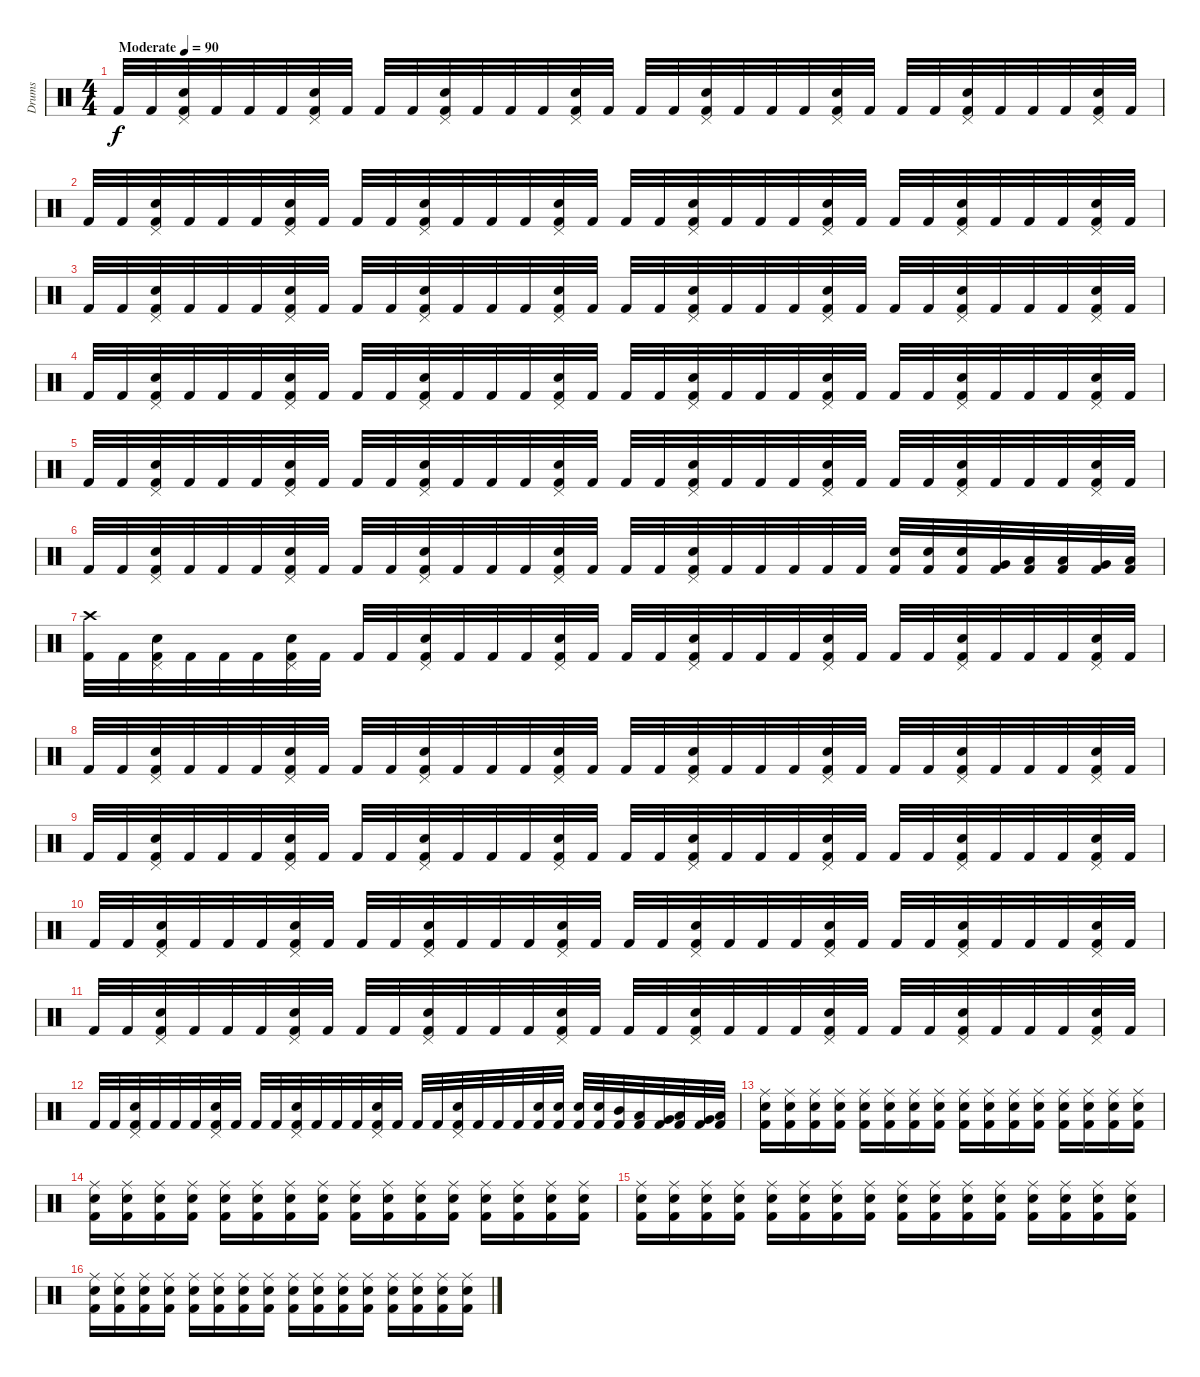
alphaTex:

\track ("Drums" "Drums") {instrument percussion}
\staff {score}
\articulation defaults
\ts (4 4)
\tempo (90 "Moderate")
\clef neutral
\ks c "Kick (hit) 2".32{dy f} "Kick (hit) 2".32
("Pedal Hi-Hat (hit)" "Snare (hit) 2" "Kick (hit) 2").32 "Kick (hit) 2".32 "Kick (hit) 2".32 "Kick (hit) 2".32 ("Pedal Hi-Hat (hit)" "Snare (hit) 2" "Kick (hit) 2").32 "Kick (hit) 2".32 "Kick (hit) 2".32 "Kick (hit) 2".32 ("Pedal Hi-Hat (hit)" "Snare (hit) 2" "Kick (hit) 2").32 "Kick (hit) 2".32 "Kick (hit) 2".32 "Kick (hit) 2".32 ("Pedal Hi-Hat (hit)" "Snare (hit) 2" "Kick (hit) 2").32 "Kick (hit) 2".32 "Kick (hit) 2".32 "Kick (hit) 2".32 ("Pedal Hi-Hat (hit)" "Snare (hit) 2" "Kick (hit) 2").32 "Kick (hit) 2".32 "Kick (hit) 2".32 "Kick (hit) 2".32 ("Pedal Hi-Hat (hit)" "Snare (hit) 2" "Kick (hit) 2").32 "Kick (hit) 2".32 "Kick (hit) 2".32 "Kick (hit) 2".32 ("Pedal Hi-Hat (hit)" "Snare (hit) 2" "Kick (hit) 2").32 "Kick (hit) 2".32 "Kick (hit) 2".32 "Kick (hit) 2".32 ("Pedal Hi-Hat (hit)" "Snare (hit) 2" "Kick (hit) 2").32 "Kick (hit) 2".32 |
"Kick (hit) 2".32 "Kick (hit) 2".32 ("Pedal Hi-Hat (hit)" "Snare (hit) 2" "Kick (hit) 2").32 "Kick (hit) 2".32 "Kick (hit) 2".32 "Kick (hit) 2".32 ("Pedal Hi-Hat (hit)" "Snare (hit) 2" "Kick (hit) 2").32 "Kick (hit) 2".32 "Kick (hit) 2".32 "Kick (hit) 2".32 ("Pedal Hi-Hat (hit)" "Snare (hit) 2" "Kick (hit) 2").32 "Kick (hit) 2".32 "Kick (hit) 2".32 "Kick (hit) 2".32 ("Pedal Hi-Hat (hit)" "Snare (hit) 2" "Kick (hit) 2").32 "Kick (hit) 2".32 "Kick (hit) 2".32 "Kick (hit) 2".32 ("Pedal Hi-Hat (hit)" "Snare (hit) 2" "Kick (hit) 2").32 "Kick (hit) 2".32 "Kick (hit) 2".32 "Kick (hit) 2".32 ("Pedal Hi-Hat (hit)" "Snare (hit) 2" "Kick (hit) 2").32 "Kick (hit) 2".32 "Kick (hit) 2".32 "Kick (hit) 2".32 ("Pedal Hi-Hat (hit)" "Snare (hit) 2" "Kick (hit) 2").32 "Kick (hit) 2".32 "Kick (hit) 2".32 "Kick (hit) 2".32 ("Pedal Hi-Hat (hit)" "Snare (hit) 2" "Kick (hit) 2").32 "Kick (hit) 2".32 |
"Kick (hit) 2".32 "Kick (hit) 2".32 ("Pedal Hi-Hat (hit)" "Snare (hit) 2" "Kick (hit) 2").32 "Kick (hit) 2".32 "Kick (hit) 2".32 "Kick (hit) 2".32 ("Pedal Hi-Hat (hit)" "Snare (hit) 2" "Kick (hit) 2").32 "Kick (hit) 2".32 "Kick (hit) 2".32 "Kick (hit) 2".32 ("Pedal Hi-Hat (hit)" "Snare (hit) 2" "Kick (hit) 2").32 "Kick (hit) 2".32 "Kick (hit) 2".32 "Kick (hit) 2".32 ("Pedal Hi-Hat (hit)" "Snare (hit) 2" "Kick (hit) 2").32 "Kick (hit) 2".32 "Kick (hit) 2".32 "Kick (hit) 2".32 ("Pedal Hi-Hat (hit)" "Snare (hit) 2" "Kick (hit) 2").32 "Kick (hit) 2".32 "Kick (hit) 2".32 "Kick (hit) 2".32 ("Pedal Hi-Hat (hit)" "Snare (hit) 2" "Kick (hit) 2").32 "Kick (hit) 2".32 "Kick (hit) 2".32 "Kick (hit) 2".32 ("Pedal Hi-Hat (hit)" "Snare (hit) 2" "Kick (hit) 2").32 "Kick (hit) 2".32 "Kick (hit) 2".32 "Kick (hit) 2".32 ("Pedal Hi-Hat (hit)" "Snare (hit) 2" "Kick (hit) 2").32 "Kick (hit) 2".32 |
"Kick (hit) 2".32 "Kick (hit) 2".32 ("Pedal Hi-Hat (hit)" "Snare (hit) 2" "Kick (hit) 2").32 "Kick (hit) 2".32 "Kick (hit) 2".32 "Kick (hit) 2".32 ("Pedal Hi-Hat (hit)" "Snare (hit) 2" "Kick (hit) 2").32 "Kick (hit) 2".32 "Kick (hit) 2".32 "Kick (hit) 2".32 ("Pedal Hi-Hat (hit)" "Snare (hit) 2" "Kick (hit) 2").32 "Kick (hit) 2".32 "Kick (hit) 2".32 "Kick (hit) 2".32 ("Pedal Hi-Hat (hit)" "Snare (hit) 2" "Kick (hit) 2").32 "Kick (hit) 2".32 "Kick (hit) 2".32 "Kick (hit) 2".32 ("Pedal Hi-Hat (hit)" "Snare (hit) 2" "Kick (hit) 2").32 "Kick (hit) 2".32 "Kick (hit) 2".32 "Kick (hit) 2".32 ("Pedal Hi-Hat (hit)" "Snare (hit) 2" "Kick (hit) 2").32 "Kick (hit) 2".32 "Kick (hit) 2".32 "Kick (hit) 2".32 ("Pedal Hi-Hat (hit)" "Snare (hit) 2" "Kick (hit) 2").32 "Kick (hit) 2".32 "Kick (hit) 2".32 "Kick (hit) 2".32 ("Pedal Hi-Hat (hit)" "Snare (hit) 2" "Kick (hit) 2").32 "Kick (hit) 2".32 |
"Kick (hit) 2".32 "Kick (hit) 2".32 ("Pedal Hi-Hat (hit)" "Snare (hit) 2" "Kick (hit) 2").32 "Kick (hit) 2".32 "Kick (hit) 2".32 "Kick (hit) 2".32 ("Pedal Hi-Hat (hit)" "Snare (hit) 2" "Kick (hit) 2").32 "Kick (hit) 2".32 "Kick (hit) 2".32 "Kick (hit) 2".32 ("Pedal Hi-Hat (hit)" "Snare (hit) 2" "Kick (hit) 2").32 "Kick (hit) 2".32 "Kick (hit) 2".32 "Kick (hit) 2".32 ("Pedal Hi-Hat (hit)" "Snare (hit) 2" "Kick (hit) 2").32 "Kick (hit) 2".32 "Kick (hit) 2".32 "Kick (hit) 2".32 ("Pedal Hi-Hat (hit)" "Snare (hit) 2" "Kick (hit) 2").32 "Kick (hit) 2".32 "Kick (hit) 2".32 "Kick (hit) 2".32 ("Pedal Hi-Hat (hit)" "Snare (hit) 2" "Kick (hit) 2").32 "Kick (hit) 2".32 "Kick (hit) 2".32 "Kick (hit) 2".32 ("Pedal Hi-Hat (hit)" "Snare (hit) 2" "Kick (hit) 2").32 "Kick (hit) 2".32 "Kick (hit) 2".32 "Kick (hit) 2".32 ("Pedal Hi-Hat (hit)" "Snare (hit) 2" "Kick (hit) 2").32 "Kick (hit) 2".32 |
"Kick (hit) 2".32 "Kick (hit) 2".32 ("Pedal Hi-Hat (hit)" "Snare (hit) 2" "Kick (hit) 2").32 "Kick (hit) 2".32 "Kick (hit) 2".32 "Kick (hit) 2".32 ("Pedal Hi-Hat (hit)" "Snare (hit) 2" "Kick (hit) 2").32 "Kick (hit) 2".32 "Kick (hit) 2".32 "Kick (hit) 2".32 ("Pedal Hi-Hat (hit)" "Snare (hit) 2" "Kick (hit) 2").32 "Kick (hit) 2".32 "Kick (hit) 2".32 "Kick (hit) 2".32 ("Pedal Hi-Hat (hit)" "Snare (hit) 2" "Kick (hit) 2").32 "Kick (hit) 2".32 "Kick (hit) 2".32 "Kick (hit) 2".32 ("Pedal Hi-Hat (hit)" "Snare (hit) 2" "Kick (hit) 2").32 "Kick (hit) 2".32 "Kick (hit) 2".32 "Kick (hit) 2".32 "Kick (hit) 2".32 "Kick (hit) 2".32 ("Snare (hit) 2" "Kick (hit) 2").32 ("Snare (hit) 2" "Kick (hit) 2").32 ("Snare (hit) 2" "Kick (hit) 2").32 ("Very Low Tom (hit)" "Kick (hit) 2").32 ("Low Floor Tom (hit)" "Kick (hit) 2").32 ("Low Tom (hit)" "Kick (hit) 2").32 ("Very Low Tom (hit)" "Kick (hit) 2").32 ("Low Floor Tom (hit)" "Kick (hit) 2").32 |
("Crash high (hit)" "Kick (hit) 2").32 "Kick (hit) 2".32 ("Pedal Hi-Hat (hit)" "Snare (hit) 2" "Kick (hit) 2").32 "Kick (hit) 2".32 "Kick (hit) 2".32 "Kick (hit) 2".32 ("Pedal Hi-Hat (hit)" "Snare (hit) 2" "Kick (hit) 2").32 "Kick (hit) 2".32 "Kick (hit) 2".32 "Kick (hit) 2".32 ("Pedal Hi-Hat (hit)" "Snare (hit) 2" "Kick (hit) 2").32 "Kick (hit) 2".32 "Kick (hit) 2".32 "Kick (hit) 2".32 ("Pedal Hi-Hat (hit)" "Snare (hit) 2" "Kick (hit) 2").32 "Kick (hit) 2".32 "Kick (hit) 2".32 "Kick (hit) 2".32 ("Pedal Hi-Hat (hit)" "Snare (hit) 2" "Kick (hit) 2").32 "Kick (hit) 2".32 "Kick (hit) 2".32 "Kick (hit) 2".32 ("Pedal Hi-Hat (hit)" "Snare (hit) 2" "Kick (hit) 2").32 "Kick (hit) 2".32 "Kick (hit) 2".32 "Kick (hit) 2".32 ("Pedal Hi-Hat (hit)" "Snare (hit) 2" "Kick (hit) 2").32 "Kick (hit) 2".32 "Kick (hit) 2".32 "Kick (hit) 2".32 ("Pedal Hi-Hat (hit)" "Snare (hit) 2" "Kick (hit) 2").32 "Kick (hit) 2".32 |
"Kick (hit) 2".32 "Kick (hit) 2".32 ("Pedal Hi-Hat (hit)" "Snare (hit) 2" "Kick (hit) 2").32 "Kick (hit) 2".32 "Kick (hit) 2".32 "Kick (hit) 2".32 ("Pedal Hi-Hat (hit)" "Snare (hit) 2" "Kick (hit) 2").32 "Kick (hit) 2".32 "Kick (hit) 2".32 "Kick (hit) 2".32 ("Pedal Hi-Hat (hit)" "Snare (hit) 2" "Kick (hit) 2").32 "Kick (hit) 2".32 "Kick (hit) 2".32 "Kick (hit) 2".32 ("Pedal Hi-Hat (hit)" "Snare (hit) 2" "Kick (hit) 2").32 "Kick (hit) 2".32 "Kick (hit) 2".32 "Kick (hit) 2".32 ("Pedal Hi-Hat (hit)" "Snare (hit) 2" "Kick (hit) 2").32 "Kick (hit) 2".32 "Kick (hit) 2".32 "Kick (hit) 2".32 ("Pedal Hi-Hat (hit)" "Snare (hit) 2" "Kick (hit) 2").32 "Kick (hit) 2".32 "Kick (hit) 2".32 "Kick (hit) 2".32 ("Pedal Hi-Hat (hit)" "Snare (hit) 2" "Kick (hit) 2").32 "Kick (hit) 2".32 "Kick (hit) 2".32 "Kick (hit) 2".32 ("Pedal Hi-Hat (hit)" "Snare (hit) 2" "Kick (hit) 2").32 "Kick (hit) 2".32 |
"Kick (hit) 2".32 "Kick (hit) 2".32 ("Pedal Hi-Hat (hit)" "Snare (hit) 2" "Kick (hit) 2").32 "Kick (hit) 2".32 "Kick (hit) 2".32 "Kick (hit) 2".32 ("Pedal Hi-Hat (hit)" "Snare (hit) 2" "Kick (hit) 2").32 "Kick (hit) 2".32 "Kick (hit) 2".32 "Kick (hit) 2".32 ("Pedal Hi-Hat (hit)" "Snare (hit) 2" "Kick (hit) 2").32 "Kick (hit) 2".32 "Kick (hit) 2".32 "Kick (hit) 2".32 ("Pedal Hi-Hat (hit)" "Snare (hit) 2" "Kick (hit) 2").32 "Kick (hit) 2".32 "Kick (hit) 2".32 "Kick (hit) 2".32 ("Pedal Hi-Hat (hit)" "Snare (hit) 2" "Kick (hit) 2").32 "Kick (hit) 2".32 "Kick (hit) 2".32 "Kick (hit) 2".32 ("Pedal Hi-Hat (hit)" "Snare (hit) 2" "Kick (hit) 2").32 "Kick (hit) 2".32 "Kick (hit) 2".32 "Kick (hit) 2".32 ("Pedal Hi-Hat (hit)" "Snare (hit) 2" "Kick (hit) 2").32 "Kick (hit) 2".32 "Kick (hit) 2".32 "Kick (hit) 2".32 ("Pedal Hi-Hat (hit)" "Snare (hit) 2" "Kick (hit) 2").32 "Kick (hit) 2".32 |
"Kick (hit) 2".32 "Kick (hit) 2".32 ("Pedal Hi-Hat (hit)" "Snare (hit) 2" "Kick (hit) 2").32 "Kick (hit) 2".32 "Kick (hit) 2".32 "Kick (hit) 2".32 ("Pedal Hi-Hat (hit)" "Snare (hit) 2" "Kick (hit) 2").32 "Kick (hit) 2".32 "Kick (hit) 2".32 "Kick (hit) 2".32 ("Pedal Hi-Hat (hit)" "Snare (hit) 2" "Kick (hit) 2").32 "Kick (hit) 2".32 "Kick (hit) 2".32 "Kick (hit) 2".32 ("Pedal Hi-Hat (hit)" "Snare (hit) 2" "Kick (hit) 2").32 "Kick (hit) 2".32 "Kick (hit) 2".32 "Kick (hit) 2".32 ("Pedal Hi-Hat (hit)" "Snare (hit) 2" "Kick (hit) 2").32 "Kick (hit) 2".32 "Kick (hit) 2".32 "Kick (hit) 2".32 ("Pedal Hi-Hat (hit)" "Snare (hit) 2" "Kick (hit) 2").32 "Kick (hit) 2".32 "Kick (hit) 2".32 "Kick (hit) 2".32 ("Pedal Hi-Hat (hit)" "Snare (hit) 2" "Kick (hit) 2").32 "Kick (hit) 2".32 "Kick (hit) 2".32 "Kick (hit) 2".32 ("Pedal Hi-Hat (hit)" "Snare (hit) 2" "Kick (hit) 2").32 "Kick (hit) 2".32 |
"Kick (hit) 2".32 "Kick (hit) 2".32 ("Pedal Hi-Hat (hit)" "Snare (hit) 2" "Kick (hit) 2").32 "Kick (hit) 2".32 "Kick (hit) 2".32 "Kick (hit) 2".32 ("Pedal Hi-Hat (hit)" "Snare (hit) 2" "Kick (hit) 2").32 "Kick (hit) 2".32 "Kick (hit) 2".32 "Kick (hit) 2".32 ("Pedal Hi-Hat (hit)" "Snare (hit) 2" "Kick (hit) 2").32 "Kick (hit) 2".32 "Kick (hit) 2".32 "Kick (hit) 2".32 ("Pedal Hi-Hat (hit)" "Snare (hit) 2" "Kick (hit) 2").32 "Kick (hit) 2".32 "Kick (hit) 2".32 "Kick (hit) 2".32 ("Pedal Hi-Hat (hit)" "Snare (hit) 2" "Kick (hit) 2").32 "Kick (hit) 2".32 "Kick (hit) 2".32 "Kick (hit) 2".32 ("Pedal Hi-Hat (hit)" "Snare (hit) 2" "Kick (hit) 2").32 "Kick (hit) 2".32 "Kick (hit) 2".32 "Kick (hit) 2".32 ("Pedal Hi-Hat (hit)" "Snare (hit) 2" "Kick (hit) 2").32 "Kick (hit) 2".32 "Kick (hit) 2".32 "Kick (hit) 2".32 ("Pedal Hi-Hat (hit)" "Snare (hit) 2" "Kick (hit) 2").32 "Kick (hit) 2".32 |
"Kick (hit) 2".32 "Kick (hit) 2".32 ("Pedal Hi-Hat (hit)" "Snare (hit) 2" "Kick (hit) 2").32 "Kick (hit) 2".32 "Kick (hit) 2".32 "Kick (hit) 2".32 ("Pedal Hi-Hat (hit)" "Snare (hit) 2" "Kick (hit) 2").32 "Kick (hit) 2".32 "Kick (hit) 2".32 "Kick (hit) 2".32 ("Pedal Hi-Hat (hit)" "Snare (hit) 2" "Kick (hit) 2").32 "Kick (hit) 2".32 "Kick (hit) 2".32 "Kick (hit) 2".32 ("Pedal Hi-Hat (hit)" "Snare (hit) 2" "Kick (hit) 2").32 "Kick (hit) 2".32 "Kick (hit) 2".32 "Kick (hit) 2".32 ("Pedal Hi-Hat (hit)" "Snare (hit) 2" "Kick (hit) 2").32 "Kick (hit) 2".32 "Kick (hit) 2".32 "Kick (hit) 2".32 ("Snare (hit) 2" "Kick (hit) 2").32 ("Snare (hit) 2" "Kick (hit) 2").32 ("Snare (hit) 2" "Kick (hit) 2").32 ("Snare (hit) 2" "Kick (hit) 2").32 ("Mid Tom (hit)" "Kick (hit) 2").32 ("Low Tom (hit)" "Kick (hit) 2").32 ("Very Low Tom (hit)" "Kick (hit) 2").32 ("Low Tom (hit)" "Kick (hit) 2").32 ("Very Low Tom (hit)" "Kick (hit) 2").32 ("Low Floor Tom (hit)" "Kick (hit) 2").32 |
("Ride (middle)" "Snare (hit) 2" "Kick (hit) 2").16 ("Ride (middle)" "Snare (hit) 2" "Kick (hit) 2").16 ("Ride (middle)" "Snare (hit) 2" "Kick (hit) 2").16 ("Ride (middle)" "Snare (hit) 2" "Kick (hit) 2").16 ("Ride (middle)" "Snare (hit) 2" "Kick (hit) 2").16 ("Ride (middle)" "Snare (hit) 2" "Kick (hit) 2").16 ("Ride (middle)" "Snare (hit) 2" "Kick (hit) 2").16 ("Ride (middle)" "Snare (hit) 2" "Kick (hit) 2").16 ("Ride (middle)" "Snare (hit) 2" "Kick (hit) 2").16 ("Ride (middle)" "Snare (hit) 2" "Kick (hit) 2").16 ("Ride (middle)" "Snare (hit) 2" "Kick (hit) 2").16 ("Ride (middle)" "Snare (hit) 2" "Kick (hit) 2").16 ("Ride (middle)" "Snare (hit) 2" "Kick (hit) 2").16 ("Ride (middle)" "Snare (hit) 2" "Kick (hit) 2").16 ("Ride (middle)" "Snare (hit) 2" "Kick (hit) 2").16 ("Ride (middle)" "Snare (hit) 2" "Kick (hit) 2").16 |
("Ride (middle)" "Snare (hit) 2" "Kick (hit) 2").16 ("Ride (middle)" "Snare (hit) 2" "Kick (hit) 2").16 ("Ride (middle)" "Snare (hit) 2" "Kick (hit) 2").16 ("Ride (middle)" "Snare (hit) 2" "Kick (hit) 2").16 ("Ride (middle)" "Snare (hit) 2" "Kick (hit) 2").16 ("Ride (middle)" "Snare (hit) 2" "Kick (hit) 2").16 ("Ride (middle)" "Snare (hit) 2" "Kick (hit) 2").16 ("Ride (middle)" "Snare (hit) 2" "Kick (hit) 2").16 ("Ride (middle)" "Snare (hit) 2" "Kick (hit) 2").16 ("Ride (middle)" "Snare (hit) 2" "Kick (hit) 2").16 ("Ride (middle)" "Snare (hit) 2" "Kick (hit) 2").16 ("Ride (middle)" "Snare (hit) 2" "Kick (hit) 2").16 ("Ride (middle)" "Snare (hit) 2" "Kick (hit) 2").16 ("Ride (middle)" "Snare (hit) 2" "Kick (hit) 2").16 ("Ride (middle)" "Snare (hit) 2" "Kick (hit) 2").16 ("Ride (middle)" "Snare (hit) 2" "Kick (hit) 2").16 |
("Ride (middle)" "Snare (hit) 2" "Kick (hit) 2").16 ("Ride (middle)" "Snare (hit) 2" "Kick (hit) 2").16 ("Ride (middle)" "Snare (hit) 2" "Kick (hit) 2").16 ("Ride (middle)" "Snare (hit) 2" "Kick (hit) 2").16 ("Ride (middle)" "Snare (hit) 2" "Kick (hit) 2").16 ("Ride (middle)" "Snare (hit) 2" "Kick (hit) 2").16 ("Ride (middle)" "Snare (hit) 2" "Kick (hit) 2").16 ("Ride (middle)" "Snare (hit) 2" "Kick (hit) 2").16 ("Ride (middle)" "Snare (hit) 2" "Kick (hit) 2").16 ("Ride (middle)" "Snare (hit) 2" "Kick (hit) 2").16 ("Ride (middle)" "Snare (hit) 2" "Kick (hit) 2").16 ("Ride (middle)" "Snare (hit) 2" "Kick (hit) 2").16 ("Ride (middle)" "Snare (hit) 2" "Kick (hit) 2").16 ("Ride (middle)" "Snare (hit) 2" "Kick (hit) 2").16 ("Ride (middle)" "Snare (hit) 2" "Kick (hit) 2").16 ("Ride (middle)" "Snare (hit) 2" "Kick (hit) 2").16 |
("Ride (middle)" "Snare (hit) 2" "Kick (hit) 2").16 ("Ride (middle)" "Snare (hit) 2" "Kick (hit) 2").16 ("Ride (middle)" "Snare (hit) 2" "Kick (hit) 2").16 ("Ride (middle)" "Snare (hit) 2" "Kick (hit) 2").16 ("Ride (middle)" "Snare (hit) 2" "Kick (hit) 2").16 ("Ride (middle)" "Snare (hit) 2" "Kick (hit) 2").16 ("Ride (middle)" "Snare (hit) 2" "Kick (hit) 2").16 ("Ride (middle)" "Snare (hit) 2" "Kick (hit) 2").16 ("Ride (middle)" "Snare (hit) 2" "Kick (hit) 2").16 ("Ride (middle)" "Snare (hit) 2" "Kick (hit) 2").16 ("Ride (middle)" "Snare (hit) 2" "Kick (hit) 2").16 ("Ride (middle)" "Snare (hit) 2" "Kick (hit) 2").16 ("Ride (middle)" "Snare (hit) 2" "Kick (hit) 2").16 ("Ride (middle)" "Snare (hit) 2" "Kick (hit) 2").16 ("Ride (middle)" "Snare (hit) 2" "Kick (hit) 2").16 ("Ride (middle)" "Snare (hit) 2" "Kick (hit) 2").16
